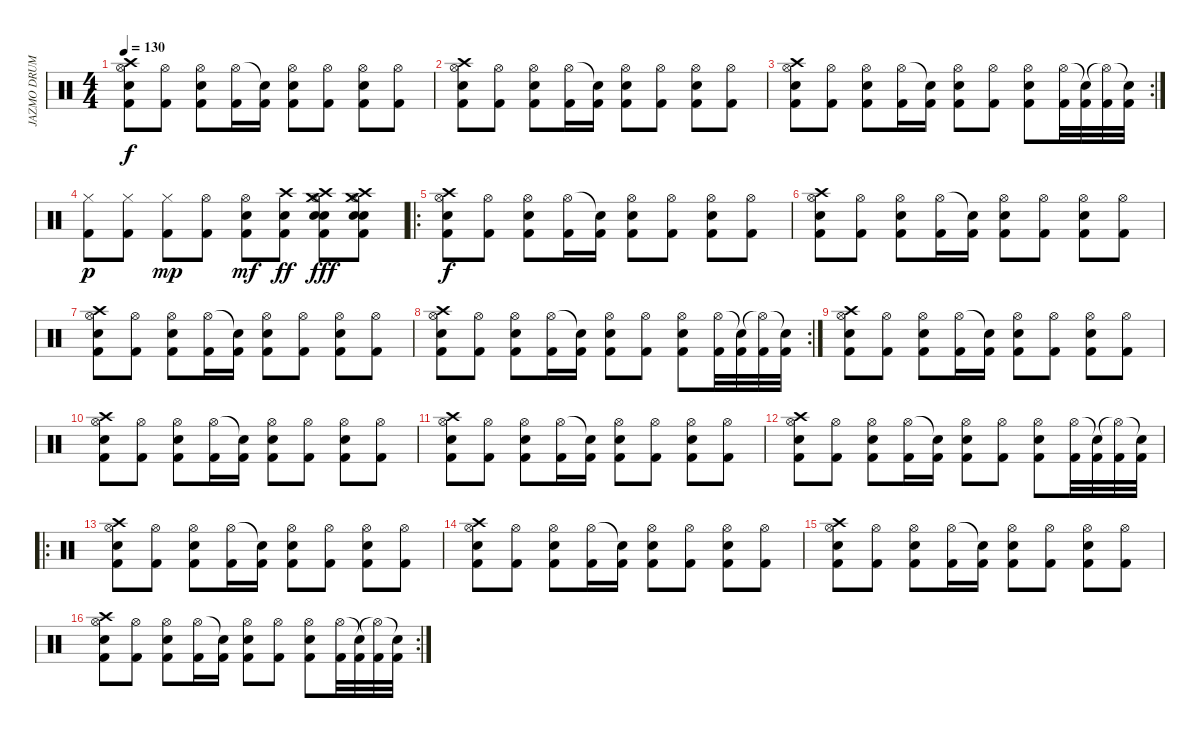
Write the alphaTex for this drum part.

\track ("JAZMO DRUMS" "JAZMO DRUM") {instrument percussion}
\staff {score}
\articulation defaults
\ts (4 4)
\tempo 130
\clef neutral
\ks c
("Crash high (hit)" "Hi-Hat (open)" "Snare (hit) 2" "Kick (hit) 2").8{dy f} ("Hi-Hat (open)" "Kick (hit) 2").8 ("Hi-Hat (open)" "Snare (hit) 2" "Kick (hit) 2").8 ("Hi-Hat (open)" "Kick (hit) 2").16 ("Snare (hit)"{t} "Kick (hit) 2").16 ("Hi-Hat (open)" "Snare (hit) 2" "Kick (hit) 2").8 ("Hi-Hat (open)" "Kick (hit) 2").8 ("Hi-Hat (open)" "Snare (hit) 2" "Kick (hit) 2").8 ("Hi-Hat (open)" "Kick (hit) 2").8 |
("Crash high (hit)" "Hi-Hat (open)" "Snare (hit) 2" "Kick (hit) 2").8 ("Hi-Hat (open)" "Kick (hit) 2").8 ("Hi-Hat (open)" "Snare (hit) 2" "Kick (hit) 2").8 ("Hi-Hat (open)" "Kick (hit) 2").16 ("Snare (hit)"{t} "Kick (hit) 2").16 ("Hi-Hat (open)" "Snare (hit) 2" "Kick (hit) 2").8 ("Hi-Hat (open)" "Kick (hit) 2").8 ("Hi-Hat (open)" "Snare (hit) 2" "Kick (hit) 2").8 ("Hi-Hat (open)" "Kick (hit) 2").8 |
\rc 2
("Crash high (hit)" "Hi-Hat (open)" "Snare (hit) 2" "Kick (hit) 2").8 ("Hi-Hat (open)" "Kick (hit) 2").8 ("Hi-Hat (open)" "Snare (hit) 2" "Kick (hit) 2").8 ("Hi-Hat (open)" "Kick (hit) 2").16 ("Snare (hit)"{t} "Kick (hit) 2").16 ("Hi-Hat (open)" "Snare (hit) 2" "Kick (hit) 2").8 ("Hi-Hat (open)" "Kick (hit) 2").8 ("Hi-Hat (open)" "Snare (hit) 2" "Kick (hit) 2").8 ("Hi-Hat (open)" "Kick (hit) 2").32 ("Snare (hit)"{t} "Kick (hit) 2").32 ("Hi-Hat (open)"{t} "Kick (hit) 2").32 ("Snare (hit)"{t} "Kick (hit) 2").32 |
("Hi-Hat (closed)" "Kick (hit) 2").8{dy p} ("Hi-Hat (closed)" "Kick (hit) 2").8 ("Hi-Hat (closed)" "Kick (hit) 2").8{dy mp} ("Hi-Hat (open)" "Kick (hit) 2").8 ("Hi-Hat (open)" "Electric Snare (hit)" "Kick (hit) 2").8{dy mf} ("Crash high (hit)" "Electric Snare (hit)" "Kick (hit) 2").8{dy ff} ("Crash high (hit)" "Hi-Hat (open)" "Crash medium (hit)" "Electric Snare (hit)" "Electric Snare (hit)" "Kick (hit) 2").8{dy fff} ("Crash high (hit)" "Hi-Hat (open)" "Crash medium (hit)" "Electric Snare (hit)" "Electric Snare (hit)" "Kick (hit) 2").8 |
\ro
("Crash high (hit)" "Hi-Hat (open)" "Snare (hit) 2" "Kick (hit) 2").8{dy f} ("Hi-Hat (open)" "Kick (hit) 2").8 ("Hi-Hat (open)" "Snare (hit) 2" "Kick (hit) 2").8 ("Hi-Hat (open)" "Kick (hit) 2").16 ("Snare (hit)"{t} "Kick (hit) 2").16 ("Hi-Hat (open)" "Snare (hit) 2" "Kick (hit) 2").8 ("Hi-Hat (open)" "Kick (hit) 2").8 ("Hi-Hat (open)" "Snare (hit) 2" "Kick (hit) 2").8 ("Hi-Hat (open)" "Kick (hit) 2").8 |
("Crash high (hit)" "Hi-Hat (open)" "Snare (hit) 2" "Kick (hit) 2").8 ("Hi-Hat (open)" "Kick (hit) 2").8 ("Hi-Hat (open)" "Snare (hit) 2" "Kick (hit) 2").8 ("Hi-Hat (open)" "Kick (hit) 2").16 ("Snare (hit)"{t} "Kick (hit) 2").16 ("Hi-Hat (open)" "Snare (hit) 2" "Kick (hit) 2").8 ("Hi-Hat (open)" "Kick (hit) 2").8 ("Hi-Hat (open)" "Snare (hit) 2" "Kick (hit) 2").8 ("Hi-Hat (open)" "Kick (hit) 2").8 |
("Crash high (hit)" "Hi-Hat (open)" "Snare (hit) 2" "Kick (hit) 2").8 ("Hi-Hat (open)" "Kick (hit) 2").8 ("Hi-Hat (open)" "Snare (hit) 2" "Kick (hit) 2").8 ("Hi-Hat (open)" "Kick (hit) 2").16 ("Snare (hit)"{t} "Kick (hit) 2").16 ("Hi-Hat (open)" "Snare (hit) 2" "Kick (hit) 2").8 ("Hi-Hat (open)" "Kick (hit) 2").8 ("Hi-Hat (open)" "Snare (hit) 2" "Kick (hit) 2").8 ("Hi-Hat (open)" "Kick (hit) 2").8 |
\rc 2
("Crash high (hit)" "Hi-Hat (open)" "Snare (hit) 2" "Kick (hit) 2").8 ("Hi-Hat (open)" "Kick (hit) 2").8 ("Hi-Hat (open)" "Snare (hit) 2" "Kick (hit) 2").8 ("Hi-Hat (open)" "Kick (hit) 2").16 ("Snare (hit)"{t} "Kick (hit) 2").16 ("Hi-Hat (open)" "Snare (hit) 2" "Kick (hit) 2").8 ("Hi-Hat (open)" "Kick (hit) 2").8 ("Hi-Hat (open)" "Snare (hit) 2" "Kick (hit) 2").8 ("Hi-Hat (open)" "Kick (hit) 2").32 ("Snare (hit)"{t} "Kick (hit) 2").32 ("Hi-Hat (open)"{t} "Kick (hit) 2").32 ("Snare (hit)"{t} "Kick (hit) 2").32 |
("Crash high (hit)" "Hi-Hat (open)" "Snare (hit) 2" "Kick (hit) 2").8 ("Hi-Hat (open)" "Kick (hit) 2").8 ("Hi-Hat (open)" "Snare (hit) 2" "Kick (hit) 2").8 ("Hi-Hat (open)" "Kick (hit) 2").16 ("Snare (hit)"{t} "Kick (hit) 2").16 ("Hi-Hat (open)" "Snare (hit) 2" "Kick (hit) 2").8 ("Hi-Hat (open)" "Kick (hit) 2").8 ("Hi-Hat (open)" "Snare (hit) 2" "Kick (hit) 2").8 ("Hi-Hat (open)" "Kick (hit) 2").8 |
("Crash high (hit)" "Hi-Hat (open)" "Snare (hit) 2" "Kick (hit) 2").8 ("Hi-Hat (open)" "Kick (hit) 2").8 ("Hi-Hat (open)" "Snare (hit) 2" "Kick (hit) 2").8 ("Hi-Hat (open)" "Kick (hit) 2").16 ("Snare (hit)"{t} "Kick (hit) 2").16 ("Hi-Hat (open)" "Snare (hit) 2" "Kick (hit) 2").8 ("Hi-Hat (open)" "Kick (hit) 2").8 ("Hi-Hat (open)" "Snare (hit) 2" "Kick (hit) 2").8 ("Hi-Hat (open)" "Kick (hit) 2").8 |
("Crash high (hit)" "Hi-Hat (open)" "Snare (hit) 2" "Kick (hit) 2").8 ("Hi-Hat (open)" "Kick (hit) 2").8 ("Hi-Hat (open)" "Snare (hit) 2" "Kick (hit) 2").8 ("Hi-Hat (open)" "Kick (hit) 2").16 ("Snare (hit)"{t} "Kick (hit) 2").16 ("Hi-Hat (open)" "Snare (hit) 2" "Kick (hit) 2").8 ("Hi-Hat (open)" "Kick (hit) 2").8 ("Hi-Hat (open)" "Snare (hit) 2" "Kick (hit) 2").8 ("Hi-Hat (open)" "Kick (hit) 2").8 |
("Crash high (hit)" "Hi-Hat (open)" "Snare (hit) 2" "Kick (hit) 2").8 ("Hi-Hat (open)" "Kick (hit) 2").8 ("Hi-Hat (open)" "Snare (hit) 2" "Kick (hit) 2").8 ("Hi-Hat (open)" "Kick (hit) 2").16 ("Snare (hit)"{t} "Kick (hit) 2").16 ("Hi-Hat (open)" "Snare (hit) 2" "Kick (hit) 2").8 ("Hi-Hat (open)" "Kick (hit) 2").8 ("Hi-Hat (open)" "Snare (hit) 2" "Kick (hit) 2").8 ("Hi-Hat (open)" "Kick (hit) 2").32 ("Snare (hit)"{t} "Kick (hit) 2").32 ("Hi-Hat (open)"{t} "Kick (hit) 2").32 ("Snare (hit)"{t} "Kick (hit) 2").32 |
\ro
("Crash high (hit)" "Hi-Hat (open)" "Snare (hit) 2" "Kick (hit) 2").8 ("Hi-Hat (open)" "Kick (hit) 2").8 ("Hi-Hat (open)" "Snare (hit) 2" "Kick (hit) 2").8 ("Hi-Hat (open)" "Kick (hit) 2").16 ("Snare (hit)"{t} "Kick (hit) 2").16 ("Hi-Hat (open)" "Snare (hit) 2" "Kick (hit) 2").8 ("Hi-Hat (open)" "Kick (hit) 2").8 ("Hi-Hat (open)" "Snare (hit) 2" "Kick (hit) 2").8 ("Hi-Hat (open)" "Kick (hit) 2").8 |
("Crash high (hit)" "Hi-Hat (open)" "Snare (hit) 2" "Kick (hit) 2").8 ("Hi-Hat (open)" "Kick (hit) 2").8 ("Hi-Hat (open)" "Snare (hit) 2" "Kick (hit) 2").8 ("Hi-Hat (open)" "Kick (hit) 2").16 ("Snare (hit)"{t} "Kick (hit) 2").16 ("Hi-Hat (open)" "Snare (hit) 2" "Kick (hit) 2").8 ("Hi-Hat (open)" "Kick (hit) 2").8 ("Hi-Hat (open)" "Snare (hit) 2" "Kick (hit) 2").8 ("Hi-Hat (open)" "Kick (hit) 2").8 |
("Crash high (hit)" "Hi-Hat (open)" "Snare (hit) 2" "Kick (hit) 2").8 ("Hi-Hat (open)" "Kick (hit) 2").8 ("Hi-Hat (open)" "Snare (hit) 2" "Kick (hit) 2").8 ("Hi-Hat (open)" "Kick (hit) 2").16 ("Snare (hit)"{t} "Kick (hit) 2").16 ("Hi-Hat (open)" "Snare (hit) 2" "Kick (hit) 2").8 ("Hi-Hat (open)" "Kick (hit) 2").8 ("Hi-Hat (open)" "Snare (hit) 2" "Kick (hit) 2").8 ("Hi-Hat (open)" "Kick (hit) 2").8 |
\rc 2
("Crash high (hit)" "Hi-Hat (open)" "Snare (hit) 2" "Kick (hit) 2").8 ("Hi-Hat (open)" "Kick (hit) 2").8 ("Hi-Hat (open)" "Snare (hit) 2" "Kick (hit) 2").8 ("Hi-Hat (open)" "Kick (hit) 2").16 ("Snare (hit)"{t} "Kick (hit) 2").16 ("Hi-Hat (open)" "Snare (hit) 2" "Kick (hit) 2").8 ("Hi-Hat (open)" "Kick (hit) 2").8 ("Hi-Hat (open)" "Snare (hit) 2" "Kick (hit) 2").8 ("Hi-Hat (open)" "Kick (hit) 2").32 ("Snare (hit)"{t} "Kick (hit) 2").32 ("Hi-Hat (open)"{t} "Kick (hit) 2").32 ("Snare (hit)"{t} "Kick (hit) 2").32
